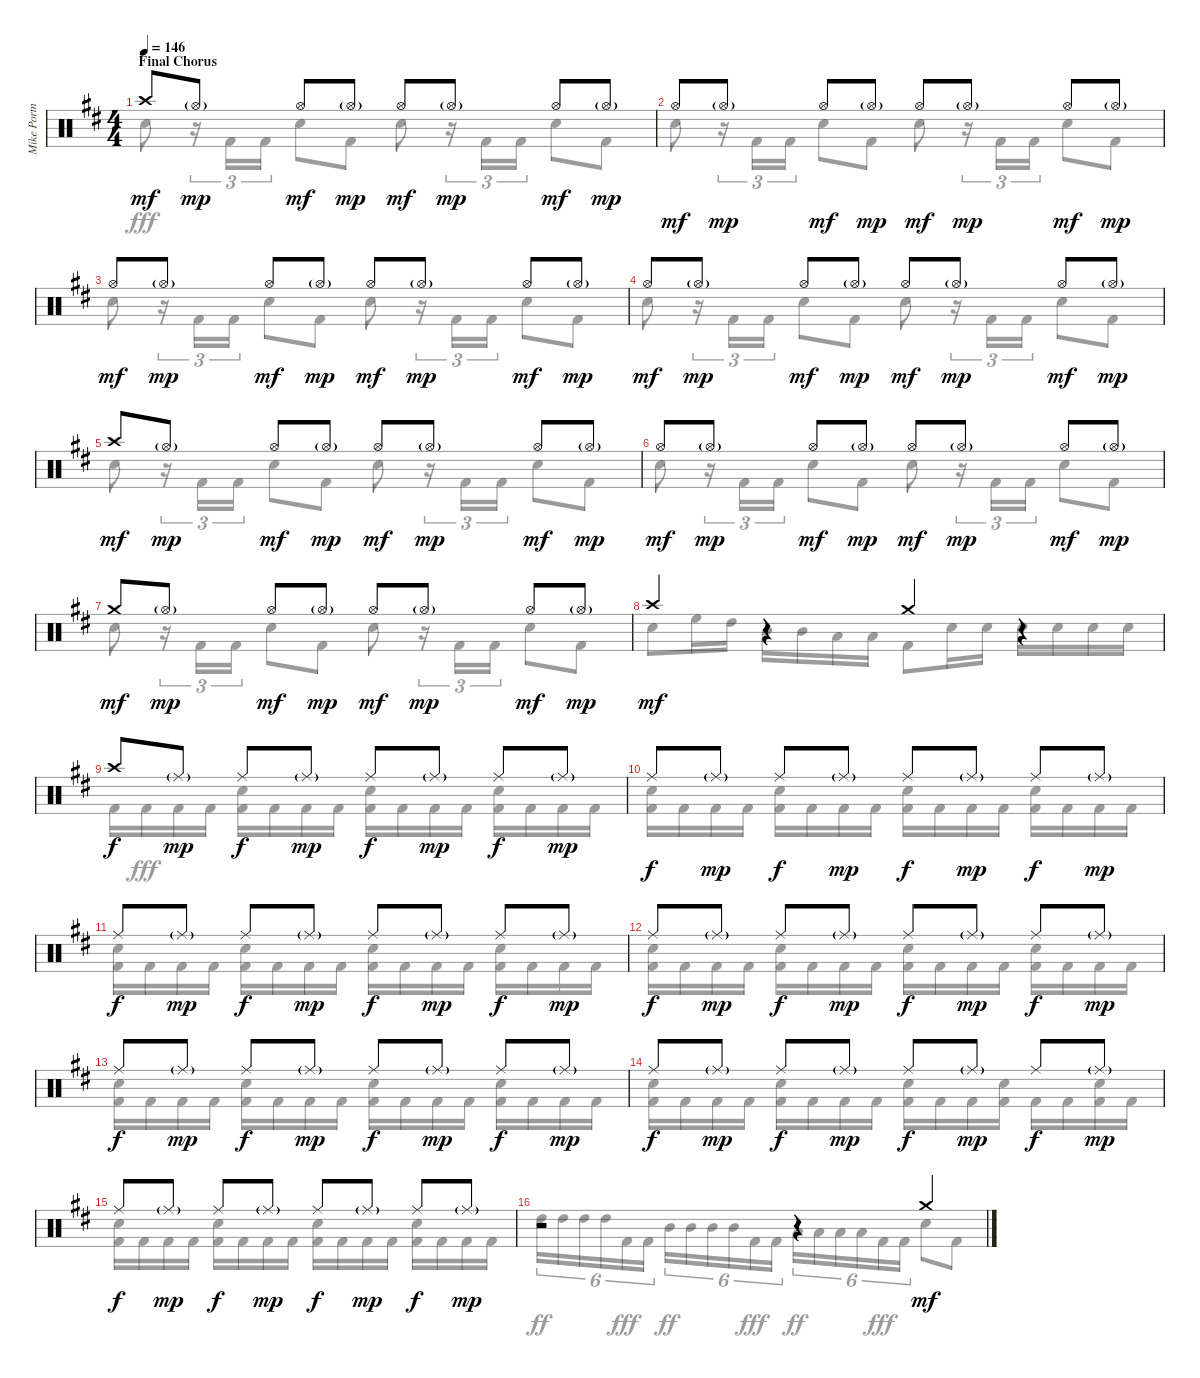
\track ("Mike Portnoy Drums" "Mike Portn") {instrument percussion}
\staff {score}
\articulation defaults
\voice
\ts (4 4)
\section ("" "Final Chorus")
\tempo 146
\clef neutral
\ks bminor "Crash high (hit)".8{dy mf} "Hi-Hat (open)"{g}.8{dy mp} "Hi-Hat (open)".8{dy mf} "Hi-Hat (open)"{g}.8{dy mp} "Hi-Hat (open)".8{dy mf} "Hi-Hat (open)"{g}.8{dy mp} "Hi-Hat (open)".8{dy mf} "Hi-Hat (open)"{g}.8{dy mp}
|
"Hi-Hat (open)".8{dy mf} "Hi-Hat (open)"{g}.8{dy mp} "Hi-Hat (open)".8{dy mf} "Hi-Hat (open)"{g}.8{dy mp} "Hi-Hat (open)".8{dy mf} "Hi-Hat (open)"{g}.8{dy mp} "Hi-Hat (open)".8{dy mf} "Hi-Hat (open)"{g}.8{dy mp} |
"Hi-Hat (open)".8{dy mf} "Hi-Hat (open)"{g}.8{dy mp} "Hi-Hat (open)".8{dy mf} "Hi-Hat (open)"{g}.8{dy mp} "Hi-Hat (open)".8{dy mf} "Hi-Hat (open)"{g}.8{dy mp} "Hi-Hat (open)".8{dy mf} "Hi-Hat (open)"{g}.8{dy mp} |
"Hi-Hat (open)".8{dy mf} "Hi-Hat (open)"{g}.8{dy mp} "Hi-Hat (open)".8{dy mf} "Hi-Hat (open)"{g}.8{dy mp} "Hi-Hat (open)".8{dy mf} "Hi-Hat (open)"{g}.8{dy mp} "Hi-Hat (open)".8{dy mf} "Hi-Hat (open)"{g}.8{dy mp} |
"Crash high (hit)".8{dy mf} "Hi-Hat (open)"{g}.8{dy mp} "Hi-Hat (open)".8{dy mf} "Hi-Hat (open)"{g}.8{dy mp} "Hi-Hat (open)".8{dy mf} "Hi-Hat (open)"{g}.8{dy mp} "Hi-Hat (open)".8{dy mf} "Hi-Hat (open)"{g}.8{dy mp} |
"Hi-Hat (open)".8{dy mf} "Hi-Hat (open)"{g}.8{dy mp} "Hi-Hat (open)".8{dy mf} "Hi-Hat (open)"{g}.8{dy mp} "Hi-Hat (open)".8{dy mf} "Hi-Hat (open)"{g}.8{dy mp} "Hi-Hat (open)".8{dy mf} "Hi-Hat (open)"{g}.8{dy mp} |
"Crash medium (hit)".8{dy mf} "Hi-Hat (open)"{g}.8{dy mp} "Hi-Hat (open)".8{dy mf} "Hi-Hat (open)"{g}.8{dy mp} "Hi-Hat (open)".8{dy mf} "Hi-Hat (open)"{g}.8{dy mp} "Hi-Hat (open)".8{dy mf} "Hi-Hat (open)"{g}.8{dy mp} |
"Crash high (hit)".4{dy mf} r.4 "Crash medium (hit)".4 r.4 |
"Crash high (hit)".8{dy f} "Ride (middle)"{g}.8{dy mp} "Ride (middle)".8{dy f} "Ride (middle)"{g}.8{dy mp} "Ride (middle)".8{dy f} "Ride (middle)"{g}.8{dy mp} "Ride (middle)".8{dy f} "Ride (middle)"{g}.8{dy mp} |
"Ride (middle)".8{dy f} "Ride (middle)"{g}.8{dy mp} "Ride (middle)".8{dy f} "Ride (middle)"{g}.8{dy mp} "Ride (middle)".8{dy f} "Ride (middle)"{g}.8{dy mp} "Ride (middle)".8{dy f} "Ride (middle)"{g}.8{dy mp} |
"Ride (middle)".8{dy f} "Ride (middle)"{g}.8{dy mp} "Ride (middle)".8{dy f} "Ride (middle)"{g}.8{dy mp} "Ride (middle)".8{dy f} "Ride (middle)"{g}.8{dy mp} "Ride (middle)".8{dy f} "Ride (middle)"{g}.8{dy mp} |
"Ride (middle)".8{dy f} "Ride (middle)"{g}.8{dy mp} "Ride (middle)".8{dy f} "Ride (middle)"{g}.8{dy mp} "Ride (middle)".8{dy f} "Ride (middle)"{g}.8{dy mp} "Ride (middle)".8{dy f} "Ride (middle)"{g}.8{dy mp} |
"Ride (middle)".8{dy f} "Ride (middle)"{g}.8{dy mp} "Ride (middle)".8{dy f} "Ride (middle)"{g}.8{dy mp} "Ride (middle)".8{dy f} "Ride (middle)"{g}.8{dy mp} "Ride (middle)".8{dy f} "Ride (middle)"{g}.8{dy mp} |
"Ride (middle)".8{dy f} "Ride (middle)"{g}.8{dy mp} "Ride (middle)".8{dy f} "Ride (middle)"{g}.8{dy mp} "Ride (middle)".8{dy f} "Ride (middle)"{g}.8{dy mp} "Ride (middle)".8{dy f} "Ride (middle)"{g}.8{dy mp} |
"Ride (middle)".8{dy f} "Ride (middle)"{g}.8{dy mp} "Ride (middle)".8{dy f} "Ride (middle)"{g}.8{dy mp} "Ride (middle)".8{dy f} "Ride (middle)"{g}.8{dy mp} "Ride (middle)".8{dy f} "Ride (middle)"{g}.8{dy mp} |
r.2 r.4 "Crash medium (hit)".4{dy mf}
\voice
\clef neutral
\ottava regular
\simile none
\ks bminor "Snare (hit) 2".8{dy fff}
r.16{tu (3 2)} "Kick (hit) 2".16{tu (3 2)} "Kick (hit) 2".16{tu (3 2)} "Snare (hit) 2".8 "Kick (hit) 2".8 "Snare (hit) 2".8 r.16{tu (3 2)} "Kick (hit) 2".16{tu (3 2)} "Kick (hit) 2".16{tu (3 2)} "Snare (hit) 2".8 "Kick (hit) 2".8 |
"Snare (hit) 2".8 r.16{tu (3 2)} "Kick (hit) 2".16{tu (3 2)} "Kick (hit) 2".16{tu (3 2)} "Snare (hit) 2".8 "Kick (hit) 2".8 "Snare (hit) 2".8 r.16{tu (3 2)} "Kick (hit) 2".16{tu (3 2)} "Kick (hit) 2".16{tu (3 2)} "Snare (hit) 2".8 "Kick (hit) 2".8 |
"Snare (hit) 2".8 r.16{tu (3 2)} "Kick (hit) 2".16{tu (3 2)} "Kick (hit) 2".16{tu (3 2)} "Snare (hit) 2".8 "Kick (hit) 2".8 "Snare (hit) 2".8 r.16{tu (3 2)} "Kick (hit) 2".16{tu (3 2)} "Kick (hit) 2".16{tu (3 2)} "Snare (hit) 2".8 "Kick (hit) 2".8 |
"Snare (hit) 2".8 r.16{tu (3 2)} "Kick (hit) 2".16{tu (3 2)} "Kick (hit) 2".16{tu (3 2)} "Snare (hit) 2".8 "Kick (hit) 2".8 "Snare (hit) 2".8 r.16{tu (3 2)} "Kick (hit) 2".16{tu (3 2)} "Kick (hit) 2".16{tu (3 2)} "Snare (hit) 2".8 "Kick (hit) 2".8 |
"Snare (hit) 2".8 r.16{tu (3 2)} "Kick (hit) 2".16{tu (3 2)} "Kick (hit) 2".16{tu (3 2)} "Snare (hit) 2".8 "Kick (hit) 2".8 "Snare (hit) 2".8 r.16{tu (3 2)} "Kick (hit) 2".16{tu (3 2)} "Kick (hit) 2".16{tu (3 2)} "Snare (hit) 2".8 "Kick (hit) 2".8 |
"Snare (hit) 2".8 r.16{tu (3 2)} "Kick (hit) 2".16{tu (3 2)} "Kick (hit) 2".16{tu (3 2)} "Snare (hit) 2".8 "Kick (hit) 2".8 "Snare (hit) 2".8 r.16{tu (3 2)} "Kick (hit) 2".16{tu (3 2)} "Kick (hit) 2".16{tu (3 2)} "Snare (hit) 2".8 "Kick (hit) 2".8 |
"Snare (hit) 2".8 r.16{tu (3 2)} "Kick (hit) 2".16{tu (3 2)} "Kick (hit) 2".16{tu (3 2)} "Snare (hit) 2".8 "Kick (hit) 2".8 "Snare (hit) 2".8 r.16{tu (3 2)} "Kick (hit) 2".16{tu (3 2)} "Kick (hit) 2".16{tu (3 2)} "Snare (hit) 2".8 "Kick (hit) 2".8 |
"Snare (hit) 2".8 "High Floor Tom (hit)".16 "High Tom (hit)".16 "Mid Tom (hit)".16 "Mid Tom (hit)".16 "Low Tom (hit)".16 "Low Tom (hit)".16 "Kick (hit) 2".8 "Snare (hit) 2".16 "Snare (hit) 2".16 "Snare (hit) 2".16 "Snare (hit) 2".16 "Snare (hit) 2".16 "Snare (hit) 2".16 |
"Kick (hit) 2".16{dy f} "Kick (hit) 2".16{dy fff} "Kick (hit) 2".16 "Kick (hit) 2".16 ("Snare (hit) 2" "Kick (hit) 2").16 "Kick (hit) 2".16 "Kick (hit) 2".16 "Kick (hit) 2".16 ("Snare (hit) 2" "Kick (hit) 2").16 "Kick (hit) 2".16 "Kick (hit) 2".16 "Kick (hit) 2".16 ("Snare (hit) 2" "Kick (hit) 2").16 "Kick (hit) 2".16 "Kick (hit) 2".16 "Kick (hit) 2".16 |
("Snare (hit) 2" "Kick (hit) 2").16 "Kick (hit) 2".16 "Kick (hit) 2".16 "Kick (hit) 2".16 ("Snare (hit) 2" "Kick (hit) 2").16 "Kick (hit) 2".16 "Kick (hit) 2".16 "Kick (hit) 2".16 ("Snare (hit) 2" "Kick (hit) 2").16 "Kick (hit) 2".16 "Kick (hit) 2".16 "Kick (hit) 2".16 ("Snare (hit) 2" "Kick (hit) 2").16 "Kick (hit) 2".16 "Kick (hit) 2".16 "Kick (hit) 2".16 |
("Snare (hit) 2" "Kick (hit) 2").16 "Kick (hit) 2".16 "Kick (hit) 2".16 "Kick (hit) 2".16 ("Snare (hit) 2" "Kick (hit) 2").16 "Kick (hit) 2".16 "Kick (hit) 2".16 "Kick (hit) 2".16 ("Snare (hit) 2" "Kick (hit) 2").16 "Kick (hit) 2".16 "Kick (hit) 2".16 "Kick (hit) 2".16 ("Snare (hit) 2" "Kick (hit) 2").16 "Kick (hit) 2".16 "Kick (hit) 2".16 "Kick (hit) 2".16 |
("Snare (hit) 2" "Kick (hit) 2").16 "Kick (hit) 2".16 "Kick (hit) 2".16 "Kick (hit) 2".16 ("Snare (hit) 2" "Kick (hit) 2").16 "Kick (hit) 2".16 "Kick (hit) 2".16 "Kick (hit) 2".16 ("Snare (hit) 2" "Kick (hit) 2").16 "Kick (hit) 2".16 "Kick (hit) 2".16 "Kick (hit) 2".16 ("Snare (hit) 2" "Kick (hit) 2").16 "Kick (hit) 2".16 "Kick (hit) 2".16 "Kick (hit) 2".16 |
("Snare (hit) 2" "Kick (hit) 2").16 "Kick (hit) 2".16 "Kick (hit) 2".16 "Kick (hit) 2".16 ("Snare (hit) 2" "Kick (hit) 2").16 "Kick (hit) 2".16 "Kick (hit) 2".16 "Kick (hit) 2".16 ("Snare (hit) 2" "Kick (hit) 2").16 "Kick (hit) 2".16 "Kick (hit) 2".16 "Kick (hit) 2".16 ("Snare (hit) 2" "Kick (hit) 2").16 "Kick (hit) 2".16 "Kick (hit) 2".16 "Kick (hit) 2".16 |
("Snare (hit) 2" "Kick (hit) 2").16 "Kick (hit) 2".16 "Kick (hit) 2".16 "Kick (hit) 2".16 ("Snare (hit) 2" "Kick (hit) 2").16 "Kick (hit) 2".16 "Kick (hit) 2".16 "Kick (hit) 2".16 ("Snare (hit) 2" "Kick (hit) 2").16 "Kick (hit) 2".16 "Kick (hit) 2".16 ("Snare (hit) 2" "Kick (hit) 2").16 "Kick (hit) 2".16 "Kick (hit) 2".16 ("Snare (hit) 2" "Kick (hit) 2").16 "Kick (hit) 2".16 |
("Snare (hit) 2" "Kick (hit) 2").16 "Kick (hit) 2".16 "Kick (hit) 2".16 "Kick (hit) 2".16 ("Snare (hit) 2" "Kick (hit) 2").16 "Kick (hit) 2".16 "Kick (hit) 2".16 "Kick (hit) 2".16 ("Snare (hit) 2" "Kick (hit) 2").16 "Kick (hit) 2".16 "Kick (hit) 2".16 "Kick (hit) 2".16 ("Snare (hit) 2" "Kick (hit) 2").16 "Kick (hit) 2".16 "Kick (hit) 2".16 "Kick (hit) 2".16 |
"High Tom (hit)".16{tu (6 4) dy ff} "High Tom (hit)".16{tu (6 4)} "High Tom (hit)".16{tu (6 4)} "High Tom (hit)".16{tu (6 4)} "Kick (hit) 2".16{tu (6 4) dy fff} "Kick (hit) 2".16{tu (6 4)} "Mid Tom (hit)".16{tu (6 4) dy ff} "Mid Tom (hit)".16{tu (6 4)} "Mid Tom (hit)".16{tu (6 4)} "Mid Tom (hit)".16{tu (6 4)} "Kick (hit) 2".16{tu (6 4) dy fff} "Kick (hit) 2".16{tu (6 4)} "Low Tom (hit)".16{tu (6 4) dy ff} "Low Tom (hit)".16{tu (6 4)} "Low Tom (hit)".16{tu (6 4)} "Low Tom (hit)".16{tu (6 4)} "Kick (hit) 2".16{tu (6 4) dy fff} "Kick (hit) 2".16{tu (6 4)} "Snare (hit) 2".8 "Kick (hit) 2".8
